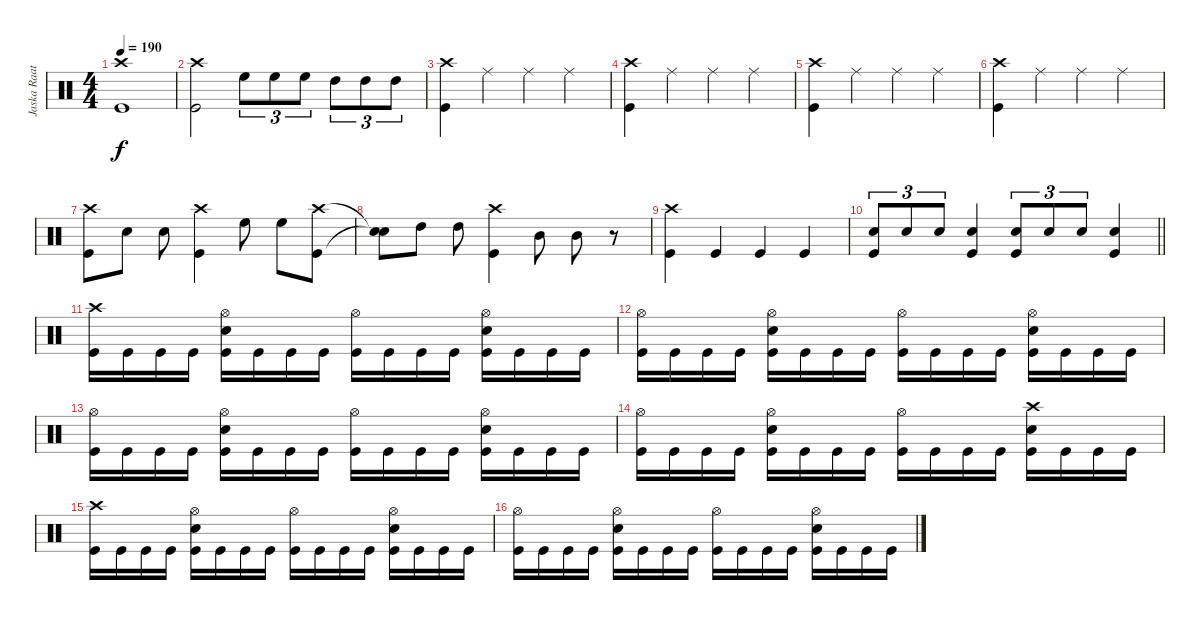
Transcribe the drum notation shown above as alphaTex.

\track ("Jaska Raatikainen" "Jaska Raat") {instrument percussion}
\staff {score}
\articulation defaults
\ts (4 4)
\tempo 190
\clef neutral
\ks c
("Crash high (hit)" "Kick (hit)").1{dy f} |
("Crash high (hit)" "Kick (hit)").2 "High Floor Tom (hit)".8{tu (3 2)} "High Floor Tom (hit)".8{tu (3 2)} "High Floor Tom (hit)".8{tu (3 2)} "High Tom (hit)".8{tu (3 2)} "High Tom (hit)".8{tu (3 2)} "High Tom (hit)".8{tu (3 2)} |
("Crash high (hit)" "Kick (hit)").4 "Ride (middle)".4 "Ride (middle)".4 "Ride (middle)".4 |
("Crash high (hit)" "Kick (hit)").4 "Ride (middle)".4 "Ride (middle)".4 "Ride (middle)".4 |
("Crash high (hit)" "Kick (hit)").4 "Ride (middle)".4 "Ride (middle)".4 "Ride (middle)".4 |
("Crash high (hit)" "Kick (hit)").4 "Ride (middle)".4 "Ride (middle)".4 "Ride (middle)".4 |
("Crash high (hit)" "Kick (hit)").8 "Snare (hit) 2".8 "Snare (hit) 2".8 ("Crash high (hit)" "Kick (hit)").4 "High Floor Tom (hit)".8 "High Floor Tom (hit)".8 ("Crash high (hit)" "Kick (hit)").8 |
("Snare (hit)"{t} "Snare (hit)"{t}).8 "High Tom (hit)".8 "High Tom (hit)".8 ("Crash high (hit)" "Kick (hit)").4 "Mid Tom (hit)".8 "Mid Tom (hit)".8 r.8 |
("Crash high (hit)" "Kick (hit)").4 "Kick (hit)".4 "Kick (hit)".4 "Kick (hit)".4 |
\barLineRight lightlight
("Snare (hit) 2" "Kick (hit)").8{tu (3 2)} "Snare (hit) 2".8{tu (3 2)} "Snare (hit) 2".8{tu (3 2)} ("Snare (hit) 2" "Kick (hit)").4 ("Snare (hit) 2" "Kick (hit)").8{tu (3 2)} "Snare (hit) 2".8{tu (3 2)} "Snare (hit) 2".8{tu (3 2)} ("Snare (hit) 2" "Kick (hit)").4 |
("Crash high (hit)" "Kick (hit)").16 "Kick (hit)".16 "Kick (hit)".16 "Kick (hit)".16 ("Hi-Hat (open)" "Snare (hit) 2" "Kick (hit)").16 "Kick (hit)".16 "Kick (hit)".16 "Kick (hit)".16 ("Hi-Hat (open)" "Kick (hit)").16 "Kick (hit)".16 "Kick (hit)".16 "Kick (hit)".16 ("Hi-Hat (open)" "Snare (hit) 2" "Kick (hit)").16 "Kick (hit)".16 "Kick (hit)".16 "Kick (hit)".16 |
("Hi-Hat (open)" "Kick (hit)").16 "Kick (hit)".16 "Kick (hit)".16 "Kick (hit)".16 ("Hi-Hat (open)" "Snare (hit) 2" "Kick (hit)").16 "Kick (hit)".16 "Kick (hit)".16 "Kick (hit)".16 ("Hi-Hat (open)" "Kick (hit)").16 "Kick (hit)".16 "Kick (hit)".16 "Kick (hit)".16 ("Hi-Hat (open)" "Snare (hit) 2" "Kick (hit)").16 "Kick (hit)".16 "Kick (hit)".16 "Kick (hit)".16 |
("Hi-Hat (open)" "Kick (hit)").16 "Kick (hit)".16 "Kick (hit)".16 "Kick (hit)".16 ("Hi-Hat (open)" "Snare (hit) 2" "Kick (hit)").16 "Kick (hit)".16 "Kick (hit)".16 "Kick (hit)".16 ("Hi-Hat (open)" "Kick (hit)").16 "Kick (hit)".16 "Kick (hit)".16 "Kick (hit)".16 ("Hi-Hat (open)" "Snare (hit) 2" "Kick (hit)").16 "Kick (hit)".16 "Kick (hit)".16 "Kick (hit)".16 |
("Hi-Hat (open)" "Kick (hit)").16 "Kick (hit)".16 "Kick (hit)".16 "Kick (hit)".16 ("Hi-Hat (open)" "Snare (hit) 2" "Kick (hit)").16 "Kick (hit)".16 "Kick (hit)".16 "Kick (hit)".16 ("Hi-Hat (open)" "Kick (hit)").16 "Kick (hit)".16 "Kick (hit)".16 "Kick (hit)".16 ("Crash high (hit)" "Snare (hit) 2" "Kick (hit)").16 "Kick (hit)".16 "Kick (hit)".16 "Kick (hit)".16 |
("Crash high (hit)" "Kick (hit)").16 "Kick (hit)".16 "Kick (hit)".16 "Kick (hit)".16 ("Hi-Hat (open)" "Snare (hit) 2" "Kick (hit)").16 "Kick (hit)".16 "Kick (hit)".16 "Kick (hit)".16 ("Hi-Hat (open)" "Kick (hit)").16 "Kick (hit)".16 "Kick (hit)".16 "Kick (hit)".16 ("Hi-Hat (open)" "Snare (hit) 2" "Kick (hit)").16 "Kick (hit)".16 "Kick (hit)".16 "Kick (hit)".16 |
("Hi-Hat (open)" "Kick (hit)").16 "Kick (hit)".16 "Kick (hit)".16 "Kick (hit)".16 ("Hi-Hat (open)" "Snare (hit) 2" "Kick (hit)").16 "Kick (hit)".16 "Kick (hit)".16 "Kick (hit)".16 ("Hi-Hat (open)" "Kick (hit)").16 "Kick (hit)".16 "Kick (hit)".16 "Kick (hit)".16 ("Hi-Hat (open)" "Snare (hit) 2" "Kick (hit)").16 "Kick (hit)".16 "Kick (hit)".16 "Kick (hit)".16
